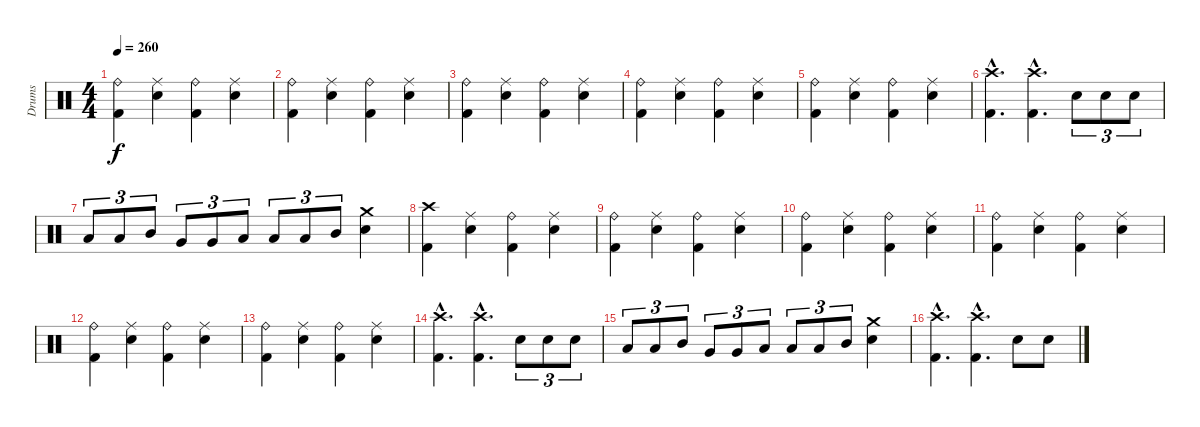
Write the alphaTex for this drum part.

\track ("Drums" "Drums") {instrument percussion}
\staff {score}
\articulation defaults
\ts (4 4)
\tempo 260
\clef neutral
\ks c
("Ride (bell)" "Kick (hit) 2").4{dy f} ("Ride (middle)" "Electric Snare (hit)").4 ("Ride (bell)" "Kick (hit) 2").4 ("Ride (middle)" "Electric Snare (hit)").4 |
("Ride (bell)" "Kick (hit) 2").4 ("Ride (middle)" "Electric Snare (hit)").4 ("Ride (bell)" "Kick (hit) 2").4 ("Ride (middle)" "Electric Snare (hit)").4 |
("Ride (bell)" "Kick (hit) 2").4 ("Ride (middle)" "Electric Snare (hit)").4 ("Ride (bell)" "Kick (hit) 2").4 ("Ride (middle)" "Electric Snare (hit)").4 |
("Ride (bell)" "Kick (hit) 2").4 ("Ride (middle)" "Electric Snare (hit)").4 ("Ride (bell)" "Kick (hit) 2").4 ("Ride (middle)" "Electric Snare (hit)").4 |
("Ride (bell)" "Kick (hit) 2").4 ("Ride (middle)" "Electric Snare (hit)").4 ("Ride (bell)" "Kick (hit) 2").4 ("Ride (middle)" "Electric Snare (hit)").4 |
("Crash high (hit)"{hac} "Kick (hit) 2"{hac}).4{d} ("Crash high (hit)"{hac} "Kick (hit) 2"{hac}).4{d} "Electric Snare (hit)".8{tu (3 2)} "Electric Snare (hit)".8{tu (3 2)} "Electric Snare (hit)".8{tu (3 2)} |
"Low Tom (hit)".8{tu (3 2)} "Low Tom (hit)".8{tu (3 2)} "Mid Tom (hit)".8{tu (3 2)} "Very Low Tom (hit)".8{tu (3 2)} "Very Low Tom (hit)".8{tu (3 2)} "Low Tom (hit)".8{tu (3 2)} "Low Tom (hit)".8{tu (3 2)} "Low Tom (hit)".8{tu (3 2)} "Mid Tom (hit)".8{tu (3 2)} ("Crash medium (hit)" "Electric Snare (hit)").4 |
("Crash high (hit)" "Kick (hit) 2").4 ("Ride (middle)" "Electric Snare (hit)").4 ("Ride (bell)" "Kick (hit) 2").4 ("Ride (middle)" "Electric Snare (hit)").4 |
("Ride (bell)" "Kick (hit) 2").4 ("Ride (middle)" "Electric Snare (hit)").4 ("Ride (bell)" "Kick (hit) 2").4 ("Ride (middle)" "Electric Snare (hit)").4 |
("Ride (bell)" "Kick (hit) 2").4 ("Ride (middle)" "Electric Snare (hit)").4 ("Ride (bell)" "Kick (hit) 2").4 ("Ride (middle)" "Electric Snare (hit)").4 |
("Ride (bell)" "Kick (hit) 2").4 ("Ride (middle)" "Electric Snare (hit)").4 ("Ride (bell)" "Kick (hit) 2").4 ("Ride (middle)" "Electric Snare (hit)").4 |
("Ride (bell)" "Kick (hit) 2").4 ("Ride (middle)" "Electric Snare (hit)").4 ("Ride (bell)" "Kick (hit) 2").4 ("Ride (middle)" "Electric Snare (hit)").4 |
("Ride (bell)" "Kick (hit) 2").4 ("Ride (middle)" "Electric Snare (hit)").4 ("Ride (bell)" "Kick (hit) 2").4 ("Ride (middle)" "Electric Snare (hit)").4 |
("Crash high (hit)"{hac} "Kick (hit) 2"{hac}).4{d} ("Crash high (hit)"{hac} "Kick (hit) 2"{hac}).4{d} "Electric Snare (hit)".8{tu (3 2)} "Electric Snare (hit)".8{tu (3 2)} "Electric Snare (hit)".8{tu (3 2)} |
"Low Tom (hit)".8{tu (3 2)} "Low Tom (hit)".8{tu (3 2)} "Mid Tom (hit)".8{tu (3 2)} "Very Low Tom (hit)".8{tu (3 2)} "Very Low Tom (hit)".8{tu (3 2)} "Low Tom (hit)".8{tu (3 2)} "Low Tom (hit)".8{tu (3 2)} "Low Tom (hit)".8{tu (3 2)} "Mid Tom (hit)".8{tu (3 2)} ("Crash medium (hit)" "Electric Snare (hit)").4 |
("Crash high (hit)"{hac} "Kick (hit) 2"{hac}).4{d} ("Crash high (hit)"{hac} "Kick (hit) 2"{hac}).4{d} "Electric Snare (hit)".8 "Electric Snare (hit)".8
